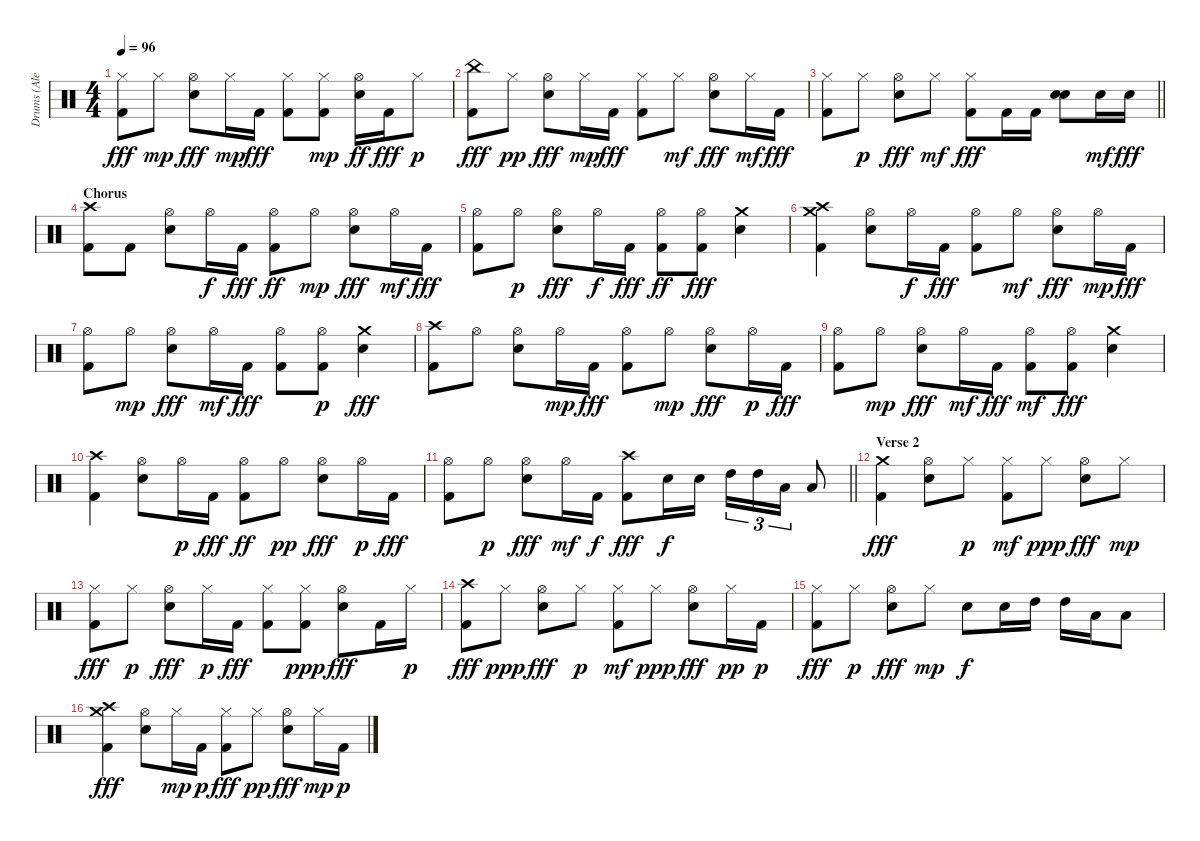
\track ("Drums (Alex Van Halen)" "Drums (Ale") {instrument percussion}
\staff {score}
\articulation defaults
\ts (4 4)
\tempo 96
\clef neutral
\ks c
("Hi-Hat (closed)" "Kick (hit) 2").8{dy fff} "Hi-Hat (closed)".8{dy mp} ("Snare (hit) 2" "Hi-Hat (open)").8{dy fff} "Hi-Hat (closed)".16{dy mp} "Kick (hit) 2".16{dy fff} ("Hi-Hat (closed)" "Kick (hit) 2").8 ("Kick (hit) 2" "Hi-Hat (closed)").8{dy mp} ("Snare (hit) 2" "Hi-Hat (open)").16{dy ff} "Kick (hit) 2".16{dy fff} "Hi-Hat (closed)".8{dy p} |
("China (hit)" "Kick (hit) 2").8{dy fff} "Hi-Hat (closed)".8{dy pp} ("Hi-Hat (open)" "Snare (hit) 2").8{dy fff} "Hi-Hat (closed)".16{dy mp} "Kick (hit) 2".16{dy fff} ("Hi-Hat (closed)" "Kick (hit) 2").8 "Hi-Hat (closed)".8{dy mf} ("Hi-Hat (open)" "Snare (hit) 2").8{dy fff} "Hi-Hat (closed)".16{dy mf} "Kick (hit) 2".16{dy fff} |
\barLineRight lightlight
("Hi-Hat (closed)" "Kick (hit) 2").8 "Hi-Hat (closed)".8{dy p} ("Hi-Hat (open)" "Snare (hit) 2").8{dy fff} "Hi-Hat (closed)".8{dy mf} ("Hi-Hat (closed)" "Kick (hit) 2").8{dy fff} "Kick (hit) 2".16 "Kick (hit) 2".16 ("Snare (hit) 2" "Snare (hit) 2").8 "Snare (hit) 2".16{dy mf} "Snare (hit) 2".16{dy fff} |
\section ("" "Chorus")
("Kick (hit) 2" "Crash high (hit)").8 "Kick (hit) 2".8 ("Snare (hit) 2" "Hi-Hat (open)").8 "Hi-Hat (open)".16{dy f} "Kick (hit) 2".16{dy fff} ("Kick (hit) 2" "Hi-Hat (open)").8{dy ff} "Hi-Hat (open)".8{dy mp} ("Hi-Hat (open)" "Snare (hit) 2").8{dy fff} "Hi-Hat (open)".16{dy mf} "Kick (hit) 2".16{dy fff} |
("Kick (hit) 2" "Hi-Hat (open)").8 "Hi-Hat (open)".8{dy p} ("Snare (hit) 2" "Hi-Hat (open)").8{dy fff} "Hi-Hat (open)".16{dy f} "Kick (hit) 2".16{dy fff} ("Kick (hit) 2" "Hi-Hat (open)").8{dy ff} ("Hi-Hat (open)" "Kick (hit) 2").8{dy fff} ("Snare (hit) 2" "Crash medium (hit)").4 |
("Crash medium (hit)" "Crash high (hit)" "Kick (hit) 2").4 ("Snare (hit) 2" "Hi-Hat (open)").8 "Hi-Hat (open)".16{dy f} "Kick (hit) 2".16{dy fff} ("Kick (hit) 2" "Hi-Hat (open)").8 "Hi-Hat (open)".8{dy mf} ("Snare (hit) 2" "Hi-Hat (open)").8{dy fff} "Hi-Hat (open)".16{dy mp} "Kick (hit) 2".16{dy fff} |
("Hi-Hat (open)" "Kick (hit) 2").8 "Hi-Hat (open)".8{dy mp} ("Hi-Hat (open)" "Snare (hit) 2").8{dy fff} "Hi-Hat (open)".16{dy mf} "Kick (hit) 2".16{dy fff} ("Hi-Hat (open)" "Kick (hit) 2").8 ("Kick (hit) 2" "Hi-Hat (open)").8{dy p} ("Snare (hit) 2" "Crash medium (hit)").4{dy fff} |
("Kick (hit) 2" "Crash high (hit)").8 "Hi-Hat (open)".8 ("Hi-Hat (open)" "Snare (hit) 2").8 "Hi-Hat (open)".16{dy mp} "Kick (hit) 2".16{dy fff} ("Kick (hit) 2" "Hi-Hat (open)").8 "Hi-Hat (open)".8{dy mp} ("Hi-Hat (open)" "Snare (hit) 2").8{dy fff} "Hi-Hat (open)".16{dy p} "Kick (hit) 2".16{dy fff} |
("Hi-Hat (open)" "Kick (hit) 2").8 "Hi-Hat (open)".8{dy mp} ("Snare (hit) 2" "Hi-Hat (open)").8{dy fff} "Hi-Hat (open)".16{dy mf} "Kick (hit) 2".16{dy fff} ("Kick (hit) 2" "Hi-Hat (open)").8{dy mf} ("Hi-Hat (open)" "Kick (hit) 2").8{dy fff} ("Snare (hit) 2" "Crash medium (hit)").4 |
("Kick (hit) 2" "Crash high (hit)").4 ("Snare (hit) 2" "Hi-Hat (open)").8 "Hi-Hat (open)".16{dy p} "Kick (hit) 2".16{dy fff} ("Kick (hit) 2" "Hi-Hat (open)").8{dy ff} "Hi-Hat (open)".8{dy pp} ("Snare (hit) 2" "Hi-Hat (open)").8{dy fff} "Hi-Hat (open)".16{dy p} "Kick (hit) 2".16{dy fff} |
\barLineRight lightlight
("Hi-Hat (open)" "Kick (hit) 2").8 "Hi-Hat (open)".8{dy p} ("Hi-Hat (open)" "Snare (hit) 2").8{dy fff} "Hi-Hat (open)".16{dy mf} "Kick (hit) 2".16{dy f} ("Crash high (hit)" "Kick (hit) 2").8{dy fff} "Snare (hit) 2".16{dy f} "Snare (hit) 2".16 "High Tom (hit)".16{tu (3 2)} "High Tom (hit)".16{tu (3 2)} "Low Tom (hit)".16{tu (3 2)} "Low Tom (hit)".8 |
\section ("" "Verse 2")
("Crash medium (hit)" "Kick (hit) 2").4{dy fff} ("Snare (hit) 2" "Hi-Hat (open)").8 "Hi-Hat (closed)".8{dy p} ("Kick (hit) 2" "Hi-Hat (closed)").8{dy mf} "Hi-Hat (closed)".8{dy ppp} ("Snare (hit) 2" "Hi-Hat (open)").8{dy fff} "Hi-Hat (closed)".8{dy mp} |
("Hi-Hat (closed)" "Kick (hit) 2").8{dy fff} "Hi-Hat (closed)".8{dy p} ("Hi-Hat (open)" "Snare (hit) 2").8{dy fff} "Hi-Hat (closed)".16{dy p} "Kick (hit) 2".16{dy fff} ("Hi-Hat (closed)" "Kick (hit) 2").8 ("Kick (hit) 2" "Hi-Hat (closed)").8{dy ppp} ("Hi-Hat (open)" "Snare (hit) 2").8{dy fff} "Kick (hit) 2".16 "Hi-Hat (closed)".16{dy p} |
("Crash high (hit)" "Kick (hit) 2").8{dy fff} "Hi-Hat (closed)".8{dy ppp} ("Hi-Hat (open)" "Snare (hit) 2").8{dy fff} "Hi-Hat (closed)".8{dy p} ("Kick (hit) 2" "Hi-Hat (closed)").8{dy mf} "Hi-Hat (closed)".8{dy ppp} ("Snare (hit) 2" "Hi-Hat (open)").8{dy fff} "Hi-Hat (closed)".16{dy pp} "Kick (hit) 2".16{dy p} |
("Hi-Hat (closed)" "Kick (hit) 2").8{dy fff} "Hi-Hat (closed)".8{dy p} ("Hi-Hat (open)" "Snare (hit) 2").8{dy fff} "Hi-Hat (closed)".8{dy mp} "Snare (hit) 2".8{dy f} "Snare (hit) 2".16 "High Tom (hit)".16 "High Tom (hit)".16 "Low Tom (hit)".16 "Low Tom (hit)".8 |
("Crash high (hit)" "Crash medium (hit)" "Kick (hit) 2").4{dy fff} ("Snare (hit) 2" "Hi-Hat (open)").8 "Hi-Hat (closed)".16{dy mp} "Kick (hit) 2".16{dy p} ("Hi-Hat (closed)" "Kick (hit) 2").8{dy fff} "Hi-Hat (closed)".8{dy pp} ("Snare (hit) 2" "Hi-Hat (open)").8{dy fff} "Hi-Hat (closed)".16{dy mp} "Kick (hit) 2".16{dy p}
